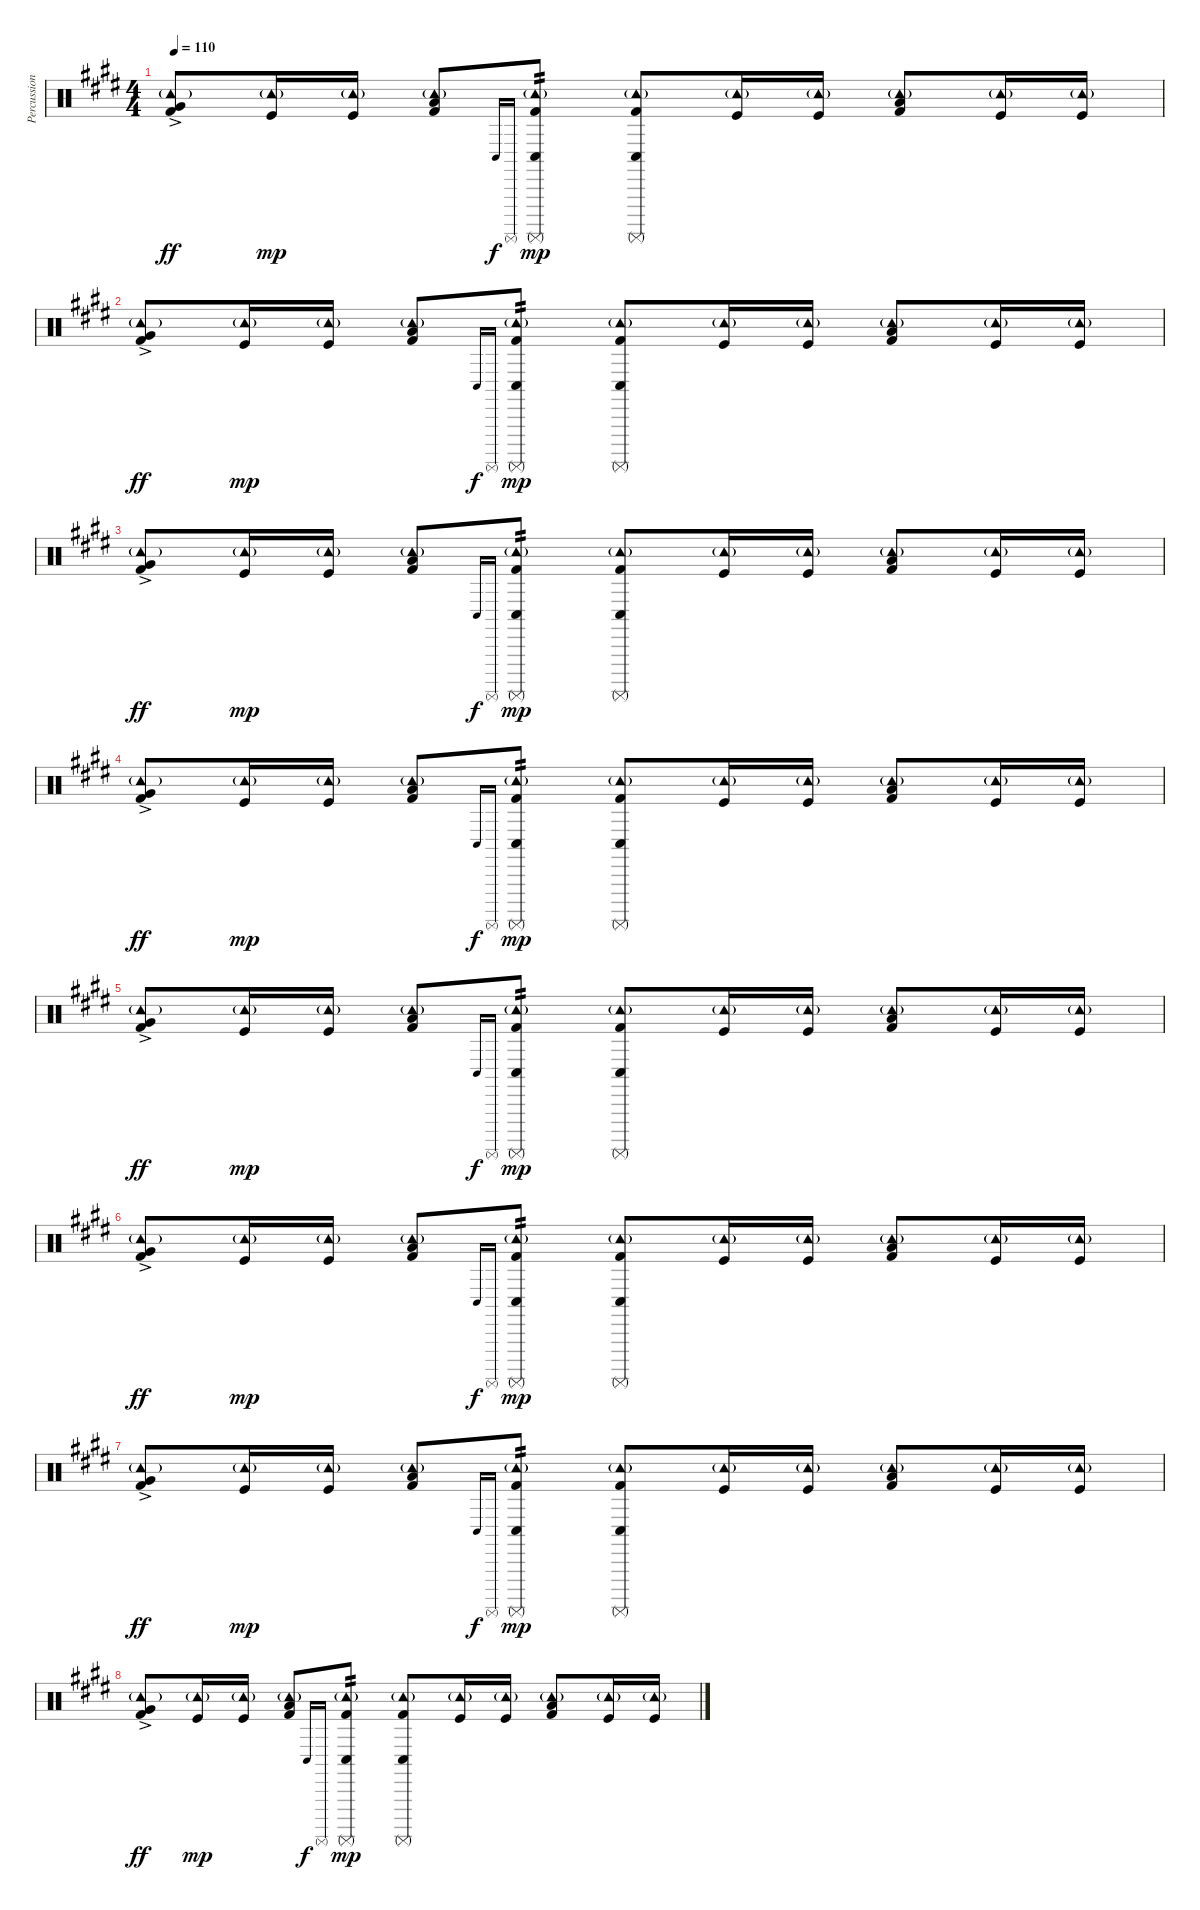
\track ("Percussion" "Percussion") {instrument percussion}
\staff {score}
\articulation defaults
\ts (4 4)
\tempo 110
\clef neutral
\ks e
("Tambourine (hit)"{g} "Very Low Tom (hit)"{ac} "Kick (hit) 2").8{dy ff} ("Tambourine (hit)"{g} "Kick (hit)").16{dy mp} ("Tambourine (hit)"{g} "Kick (hit)").16 ("Tambourine (hit)"{g} "Low Floor Tom (hit)" "Kick (hit) 2").8 "Conga low (hit)".16{gr onbeat dy f} "Surdo (mute)".16{gr onbeat} ("Tambourine (hit)"{g} "Conga low (hit)" "Surdo (mute)" "Kick (hit) 2").8{tp 2 dy mp} ("Tambourine (hit)"{g} "Conga low (hit)" "Surdo (mute)" "Kick (hit) 2").8 ("Tambourine (hit)"{g} "Kick (hit)").16 ("Tambourine (hit)"{g} "Kick (hit)").16 ("Tambourine (hit)"{g} "Low Floor Tom (hit)" "Kick (hit) 2").8 ("Tambourine (hit)"{g} "Kick (hit)").16 ("Tambourine (hit)"{g} "Kick (hit)").16 |
("Tambourine (hit)"{g} "Very Low Tom (hit)"{ac} "Kick (hit) 2").8{dy ff} ("Tambourine (hit)"{g} "Kick (hit)").16{dy mp} ("Tambourine (hit)"{g} "Kick (hit)").16 ("Tambourine (hit)"{g} "Low Floor Tom (hit)" "Kick (hit) 2").8 "Conga low (hit)".16{gr onbeat dy f} "Surdo (mute)".16{gr onbeat} ("Tambourine (hit)"{g} "Conga low (hit)" "Surdo (mute)" "Kick (hit) 2").8{tp 2 dy mp} ("Tambourine (hit)"{g} "Conga low (hit)" "Surdo (mute)" "Kick (hit) 2").8 ("Tambourine (hit)"{g} "Kick (hit)").16 ("Tambourine (hit)"{g} "Kick (hit)").16 ("Tambourine (hit)"{g} "Low Floor Tom (hit)" "Kick (hit) 2").8 ("Tambourine (hit)"{g} "Kick (hit)").16 ("Tambourine (hit)"{g} "Kick (hit)").16 |
("Tambourine (hit)"{g} "Very Low Tom (hit)"{ac} "Kick (hit) 2").8{dy ff} ("Tambourine (hit)"{g} "Kick (hit)").16{dy mp} ("Tambourine (hit)"{g} "Kick (hit)").16 ("Tambourine (hit)"{g} "Low Floor Tom (hit)" "Kick (hit) 2").8 "Conga low (hit)".16{gr onbeat dy f} "Surdo (mute)".16{gr onbeat} ("Tambourine (hit)"{g} "Conga low (hit)" "Surdo (mute)" "Kick (hit) 2").8{tp 2 dy mp} ("Tambourine (hit)"{g} "Conga low (hit)" "Surdo (mute)" "Kick (hit) 2").8 ("Tambourine (hit)"{g} "Kick (hit)").16 ("Tambourine (hit)"{g} "Kick (hit)").16 ("Tambourine (hit)"{g} "Low Floor Tom (hit)" "Kick (hit) 2").8 ("Tambourine (hit)"{g} "Kick (hit)").16 ("Tambourine (hit)"{g} "Kick (hit)").16 |
("Tambourine (hit)"{g} "Very Low Tom (hit)"{ac} "Kick (hit) 2").8{dy ff} ("Tambourine (hit)"{g} "Kick (hit)").16{dy mp} ("Tambourine (hit)"{g} "Kick (hit)").16 ("Tambourine (hit)"{g} "Low Floor Tom (hit)" "Kick (hit) 2").8 "Conga low (hit)".16{gr onbeat dy f} "Surdo (mute)".16{gr onbeat} ("Tambourine (hit)"{g} "Conga low (hit)" "Surdo (mute)" "Kick (hit) 2").8{tp 2 dy mp} ("Tambourine (hit)"{g} "Conga low (hit)" "Surdo (mute)" "Kick (hit) 2").8 ("Tambourine (hit)"{g} "Kick (hit)").16 ("Tambourine (hit)"{g} "Kick (hit)").16 ("Tambourine (hit)"{g} "Low Floor Tom (hit)" "Kick (hit) 2").8 ("Tambourine (hit)"{g} "Kick (hit)").16 ("Tambourine (hit)"{g} "Kick (hit)").16 |
("Tambourine (hit)"{g} "Very Low Tom (hit)"{ac} "Kick (hit) 2").8{dy ff} ("Tambourine (hit)"{g} "Kick (hit)").16{dy mp} ("Tambourine (hit)"{g} "Kick (hit)").16 ("Tambourine (hit)"{g} "Low Floor Tom (hit)" "Kick (hit) 2").8 "Conga low (hit)".16{gr onbeat dy f} "Surdo (mute)".16{gr onbeat} ("Tambourine (hit)"{g} "Conga low (hit)" "Surdo (mute)" "Kick (hit) 2").8{tp 2 dy mp} ("Tambourine (hit)"{g} "Conga low (hit)" "Surdo (mute)" "Kick (hit) 2").8 ("Tambourine (hit)"{g} "Kick (hit)").16 ("Tambourine (hit)"{g} "Kick (hit)").16 ("Tambourine (hit)"{g} "Low Floor Tom (hit)" "Kick (hit) 2").8 ("Tambourine (hit)"{g} "Kick (hit)").16 ("Tambourine (hit)"{g} "Kick (hit)").16 |
("Tambourine (hit)"{g} "Very Low Tom (hit)"{ac} "Kick (hit) 2").8{dy ff} ("Tambourine (hit)"{g} "Kick (hit)").16{dy mp} ("Tambourine (hit)"{g} "Kick (hit)").16 ("Tambourine (hit)"{g} "Low Floor Tom (hit)" "Kick (hit) 2").8 "Conga low (hit)".16{gr onbeat dy f} "Surdo (mute)".16{gr onbeat} ("Tambourine (hit)"{g} "Conga low (hit)" "Surdo (mute)" "Kick (hit) 2").8{tp 2 dy mp} ("Tambourine (hit)"{g} "Conga low (hit)" "Surdo (mute)" "Kick (hit) 2").8 ("Tambourine (hit)"{g} "Kick (hit)").16 ("Tambourine (hit)"{g} "Kick (hit)").16 ("Tambourine (hit)"{g} "Low Floor Tom (hit)" "Kick (hit) 2").8 ("Tambourine (hit)"{g} "Kick (hit)").16 ("Tambourine (hit)"{g} "Kick (hit)").16 |
("Tambourine (hit)"{g} "Very Low Tom (hit)"{ac} "Kick (hit) 2").8{dy ff} ("Tambourine (hit)"{g} "Kick (hit)").16{dy mp} ("Tambourine (hit)"{g} "Kick (hit)").16 ("Tambourine (hit)"{g} "Low Floor Tom (hit)" "Kick (hit) 2").8 "Conga low (hit)".16{gr onbeat dy f} "Surdo (mute)".16{gr onbeat} ("Tambourine (hit)"{g} "Conga low (hit)" "Surdo (mute)" "Kick (hit) 2").8{tp 2 dy mp} ("Tambourine (hit)"{g} "Conga low (hit)" "Surdo (mute)" "Kick (hit) 2").8 ("Tambourine (hit)"{g} "Kick (hit)").16 ("Tambourine (hit)"{g} "Kick (hit)").16 ("Tambourine (hit)"{g} "Low Floor Tom (hit)" "Kick (hit) 2").8 ("Tambourine (hit)"{g} "Kick (hit)").16 ("Tambourine (hit)"{g} "Kick (hit)").16 |
("Tambourine (hit)"{g} "Very Low Tom (hit)"{ac} "Kick (hit) 2").8{dy ff} ("Tambourine (hit)"{g} "Kick (hit)").16{dy mp} ("Tambourine (hit)"{g} "Kick (hit)").16 ("Tambourine (hit)"{g} "Low Floor Tom (hit)" "Kick (hit) 2").8 "Conga low (hit)".16{gr onbeat dy f} "Surdo (mute)".16{gr onbeat} ("Tambourine (hit)"{g} "Conga low (hit)" "Surdo (mute)" "Kick (hit) 2").8{tp 2 dy mp} ("Tambourine (hit)"{g} "Conga low (hit)" "Surdo (mute)" "Kick (hit) 2").8 ("Tambourine (hit)"{g} "Kick (hit)").16 ("Tambourine (hit)"{g} "Kick (hit)").16 ("Tambourine (hit)"{g} "Low Floor Tom (hit)" "Kick (hit) 2").8 ("Tambourine (hit)"{g} "Kick (hit)").16 ("Tambourine (hit)"{g} "Kick (hit)").16
